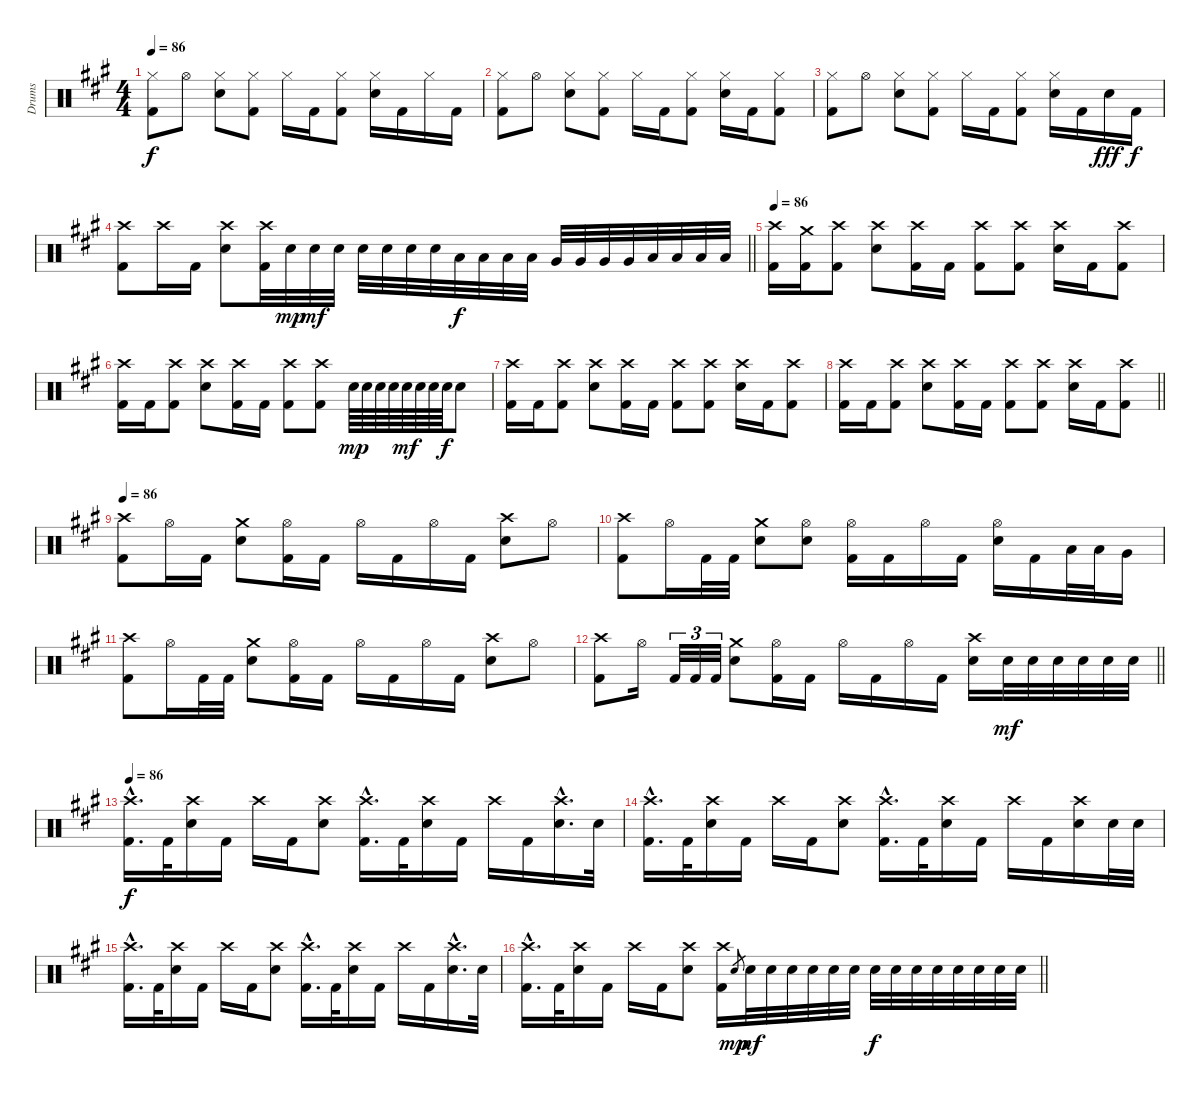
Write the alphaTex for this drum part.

\track ("Drums" "Drums") {instrument percussion}
\staff {score}
\articulation defaults
\ts (4 4)
\tempo 86
\clef neutral
\ks f#minor
("Hi-Hat (closed)" "Kick (hit) 2").8{dy f} "Hi-Hat (open)".8 ("Hi-Hat (closed)" "Snare (hit) 2").8 ("Hi-Hat (closed)" "Kick (hit) 2").8 "Hi-Hat (closed)".16 "Kick (hit) 2".16 ("Hi-Hat (closed)" "Kick (hit) 2").8 ("Hi-Hat (closed)" "Snare (hit) 2").16 "Kick (hit) 2".16 "Hi-Hat (closed)".16 "Kick (hit) 2".16 |
("Hi-Hat (closed)" "Kick (hit) 2").8 "Hi-Hat (open)".8 ("Hi-Hat (closed)" "Snare (hit) 2").8 ("Hi-Hat (closed)" "Kick (hit) 2").8 "Hi-Hat (closed)".16 "Kick (hit) 2".16 ("Hi-Hat (closed)" "Kick (hit) 2").8 ("Hi-Hat (closed)" "Snare (hit) 2").16 "Kick (hit) 2".16 ("Hi-Hat (closed)" "Kick (hit) 2").8 |
("Hi-Hat (closed)" "Kick (hit) 2").8 "Hi-Hat (open)".8 ("Hi-Hat (closed)" "Snare (hit) 2").8 ("Hi-Hat (closed)" "Kick (hit) 2").8 "Hi-Hat (closed)".16 "Kick (hit) 2".16 ("Hi-Hat (closed)" "Kick (hit) 2").8 ("Hi-Hat (closed)" "Snare (hit) 2").16 "Kick (hit) 2".16 "Snare (hit) 2".16{dy fff} "Kick (hit) 2".16{dy f} |
\barLineRight lightlight
("Crash high (hit)" "Kick (hit) 2").8 "Crash high (hit)".16 "Kick (hit) 2".16 ("Crash high (hit)" "Snare (hit) 2").8 ("Crash high (hit)" "Kick (hit) 2").32 "Snare (hit) 2".32{dy mp} "Snare (hit) 2".32{dy mf} "Snare (hit) 2".32 "Snare (hit) 2".32 "Snare (hit) 2".32 "Snare (hit) 2".32 "Snare (hit) 2".32 "Low Tom (hit)".32{dy f} "Low Tom (hit)".32 "Low Tom (hit)".32 "Low Tom (hit)".32 "Very Low Tom (hit)".32 "Very Low Tom (hit)".32 "Very Low Tom (hit)".32 "Very Low Tom (hit)".32 "Low Floor Tom (hit)".32 "Low Floor Tom (hit)".32 "Low Floor Tom (hit)".32 "Low Floor Tom (hit)".32 |
\tempo 86
("Crash high (hit)" "Kick (hit) 2").16 ("Crash medium (hit)" "Kick (hit) 2").16 ("Crash high (hit)" "Kick (hit) 2").8 ("Crash high (hit)" "Snare (hit) 2").8 ("Crash high (hit)" "Kick (hit) 2").16 "Kick (hit) 2".16 ("Crash high (hit)" "Kick (hit) 2").8 ("Crash high (hit)" "Kick (hit) 2").8 ("Crash high (hit)" "Snare (hit) 2").16 "Kick (hit) 2".16 ("Crash high (hit)" "Kick (hit) 2").8 |
("Crash high (hit)" "Kick (hit) 2").16 "Kick (hit) 2".16 ("Crash high (hit)" "Kick (hit) 2").8 ("Crash high (hit)" "Snare (hit) 2").8 ("Crash high (hit)" "Kick (hit) 2").16 "Kick (hit) 2".16 ("Crash high (hit)" "Kick (hit) 2").8 ("Crash high (hit)" "Kick (hit) 2").8 "Snare (hit) 2".64{dy mp} "Snare (hit) 2".64 "Snare (hit) 2".64 "Snare (hit) 2".64 "Snare (hit) 2".64{dy mf} "Snare (hit) 2".64 "Snare (hit) 2".64 "Snare (hit) 2".64{dy f} "Snare (hit) 2".8 |
("Crash high (hit)" "Kick (hit) 2").16 "Kick (hit) 2".16 ("Crash high (hit)" "Kick (hit) 2").8 ("Crash high (hit)" "Snare (hit) 2").8 ("Crash high (hit)" "Kick (hit) 2").16 "Kick (hit) 2".16 ("Crash high (hit)" "Kick (hit) 2").8 ("Crash high (hit)" "Kick (hit) 2").8 ("Crash high (hit)" "Snare (hit) 2").16 "Kick (hit) 2".16 ("Crash high (hit)" "Kick (hit) 2").8 |
\barLineRight lightlight
("Crash high (hit)" "Kick (hit) 2").16 "Kick (hit) 2".16 ("Crash high (hit)" "Kick (hit) 2").8 ("Crash high (hit)" "Snare (hit) 2").8 ("Crash high (hit)" "Kick (hit) 2").16 "Kick (hit) 2".16 ("Crash high (hit)" "Kick (hit) 2").8 ("Crash high (hit)" "Kick (hit) 2").8 ("Crash high (hit)" "Snare (hit) 2").16 "Kick (hit) 2".16 ("Crash high (hit)" "Kick (hit) 2").8 |
\tempo 86
("Crash high (hit)" "Kick (hit) 2").8 "Hi-Hat (open)".16 "Kick (hit) 2".16 ("Crash medium (hit)" "Snare (hit) 2").8 ("Hi-Hat (open)" "Kick (hit) 2").16 "Kick (hit) 2".16 "Hi-Hat (open)".16 "Kick (hit) 2".16 "Hi-Hat (open)".16 "Kick (hit) 2".16 ("Crash high (hit)" "Snare (hit) 2").8 "Hi-Hat (open)".8 |
("Crash high (hit)" "Kick (hit) 2").8 "Hi-Hat (open)".16 "Kick (hit) 2".32 "Kick (hit) 2".32 ("Crash medium (hit)" "Snare (hit) 2").8 ("Hi-Hat (open)" "Snare (hit) 2").8 ("Hi-Hat (open)" "Kick (hit) 2").16 "Kick (hit) 2".16 "Hi-Hat (open)".16 "Kick (hit) 2".16 ("Hi-Hat (open)" "Snare (hit) 2").16 "Kick (hit) 2".16 "Low Tom (hit)".32 "Low Tom (hit)".32 "Very Low Tom (hit)".16 |
("Crash high (hit)" "Kick (hit) 2").8 "Hi-Hat (open)".16 "Kick (hit) 2".32 "Kick (hit) 2".32 ("Crash medium (hit)" "Snare (hit) 2").8 ("Hi-Hat (open)" "Kick (hit) 2").16 "Kick (hit) 2".16 "Hi-Hat (open)".16 "Kick (hit) 2".16 "Hi-Hat (open)".16 "Kick (hit) 2".16 ("Crash high (hit)" "Snare (hit) 2").8 "Hi-Hat (open)".8 |
\barLineRight lightlight
("Crash high (hit)" "Kick (hit) 2").8 "Hi-Hat (open)".16 "Kick (hit) 2".32{tu (3 2)} "Kick (hit) 2".32{tu (3 2)} "Kick (hit) 2".32{tu (3 2)} ("Crash medium (hit)" "Snare (hit) 2").8 ("Hi-Hat (open)" "Kick (hit) 2").16 "Kick (hit) 2".16 "Hi-Hat (open)".16 "Kick (hit) 2".16 "Hi-Hat (open)".16 "Kick (hit) 2".16 ("Crash high (hit)" "Snare (hit) 2").16 "Snare (hit) 2".32{dy mf} "Snare (hit) 2".32 "Snare (hit) 2".32 "Snare (hit) 2".32 "Snare (hit) 2".32 "Snare (hit) 2".32 |
\tempo 86
("Crash high (hit)"{hac} "Kick (hit) 2"{hac}).16{d dy f} "Kick (hit) 2".32 ("Crash high (hit)" "Snare (hit) 2").16 "Kick (hit) 2".16 "Crash high (hit)".16 "Kick (hit) 2".16 ("Crash high (hit)" "Snare (hit) 2").8 ("Crash high (hit)"{hac} "Kick (hit) 2"{hac}).16{d} "Kick (hit) 2".32 ("Crash high (hit)" "Snare (hit) 2").16 "Kick (hit) 2".16 "Crash high (hit)".16 "Kick (hit) 2".16 ("Crash high (hit)"{hac} "Snare (hit) 2"{hac}).16{d} "Snare (hit) 2".32 |
("Crash high (hit)"{hac} "Kick (hit) 2"{hac}).16{d} "Kick (hit) 2".32 ("Crash high (hit)" "Snare (hit) 2").16 "Kick (hit) 2".16 "Crash high (hit)".16 "Kick (hit) 2".16 ("Crash high (hit)" "Snare (hit) 2").8 ("Crash high (hit)"{hac} "Kick (hit) 2"{hac}).16{d} "Kick (hit) 2".32 ("Crash high (hit)" "Snare (hit) 2").16 "Kick (hit) 2".16 "Crash high (hit)".16 "Kick (hit) 2".16 ("Crash high (hit)" "Snare (hit) 2").16 "Snare (hit) 2".32 "Snare (hit) 2".32 |
("Crash high (hit)"{hac} "Kick (hit) 2"{hac}).16{d} "Kick (hit) 2".32 ("Crash high (hit)" "Snare (hit) 2").16 "Kick (hit) 2".16 "Crash high (hit)".16 "Kick (hit) 2".16 ("Crash high (hit)" "Snare (hit) 2").8 ("Crash high (hit)"{hac} "Kick (hit) 2"{hac}).16{d} "Kick (hit) 2".32 ("Crash high (hit)" "Snare (hit) 2").16 "Kick (hit) 2".16 "Crash high (hit)".16 "Kick (hit) 2".16 ("Crash high (hit)"{hac} "Snare (hit) 2"{hac}).16{d} "Snare (hit) 2".32 |
\barLineRight lightlight
("Crash high (hit)"{hac} "Kick (hit) 2"{hac}).16{d} "Kick (hit) 2".32 ("Crash high (hit)" "Snare (hit) 2").16 "Kick (hit) 2".16 "Crash high (hit)".16 "Kick (hit) 2".16 ("Crash high (hit)" "Snare (hit) 2").8 ("Crash high (hit)" "Kick (hit) 2").16 "Snare (hit) 2".8{gr dy mp} "Snare (hit) 2".32{dy mf} "Snare (hit) 2".32 "Snare (hit) 2".32 "Snare (hit) 2".32 "Snare (hit) 2".32 "Snare (hit) 2".32 "Snare (hit) 2".32{dy f} "Snare (hit) 2".32 "Snare (hit) 2".32 "Snare (hit) 2".32 "Snare (hit) 2".32 "Snare (hit) 2".32 "Snare (hit) 2".32 "Snare (hit) 2".32
